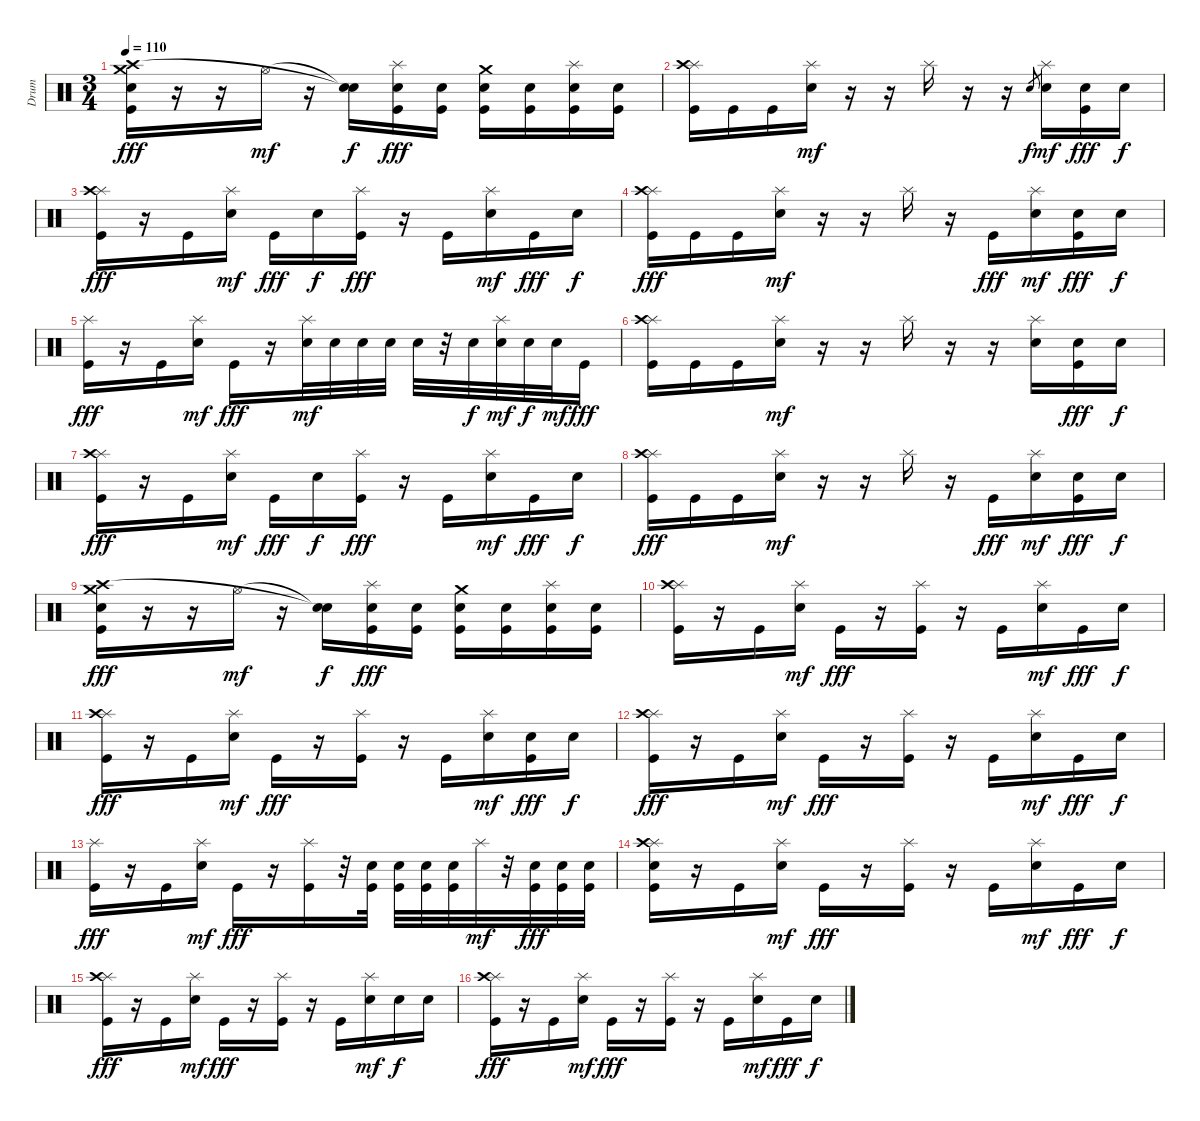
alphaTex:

\track ("Drum" "Drum") {instrument percussion}
\staff {score}
\articulation defaults
\ts (3 4)
\tempo 110
\clef neutral
\ks c
("Crash medium (hit)" "Crash high (hit)" "Electric Snare (hit)" "Kick (hit)").16{dy fff} r.16 r.16 "Hi-Hat (open)".16{dy mf} r.16 ("Snare (hit)"{t} "Snare (hit)"{t}).16{dy f} ("Splash (hit)" "Electric Snare (hit)" "Kick (hit)").16{dy fff} ("Electric Snare (hit)" "Kick (hit)").16 ("Crash medium (hit)" "Electric Snare (hit)" "Kick (hit)").16 ("Electric Snare (hit)" "Kick (hit)").16 ("Splash (hit)" "Electric Snare (hit)" "Kick (hit)").16 ("Electric Snare (hit)" "Kick (hit)").16 |
("Splash (hit)" "Crash high (hit)" "Kick (hit)").16 "Kick (hit)".16 "Kick (hit)".16 ("Splash (hit)" "Electric Snare (hit)").16{dy mf} r.16 r.16 "Splash (hit)".16 r.16 r.16 "Electric Snare (hit)"{sl}.8{gr dy f} ("Splash (hit)" "Electric Snare (hit)").16{dy mf} ("Electric Snare (hit)" "Kick (hit)").16{dy fff} "Electric Snare (hit)".16{dy f} |
("Splash (hit)" "Crash high (hit)" "Kick (hit)").16{dy fff} r.16 "Kick (hit)".16 ("Splash (hit)" "Electric Snare (hit)").16{dy mf} "Kick (hit)".16{dy fff} "Electric Snare (hit)".16{dy f} ("Splash (hit)" "Kick (hit)").16{dy fff} r.16 "Kick (hit)".16 ("Splash (hit)" "Electric Snare (hit)").16{dy mf} "Kick (hit)".16{dy fff} "Electric Snare (hit)".16{dy f} |
("Splash (hit)" "Crash high (hit)" "Kick (hit)").16{dy fff} "Kick (hit)".16 "Kick (hit)".16 ("Splash (hit)" "Electric Snare (hit)").16{dy mf} r.16 r.16 "Splash (hit)".16 r.16 "Kick (hit)".16{dy fff} ("Splash (hit)" "Electric Snare (hit)").16{dy mf} ("Electric Snare (hit)" "Kick (hit)").16{dy fff} "Electric Snare (hit)".16{dy f} |
("Splash (hit)" "Kick (hit)").16{dy fff} r.16 "Kick (hit)".16 ("Splash (hit)" "Electric Snare (hit)").16{dy mf} "Kick (hit)".16{dy fff} r.16 ("Splash (hit)" "Electric Snare (hit)").32{dy mf} "Electric Snare (hit)".32 "Electric Snare (hit)".32 "Electric Snare (hit)".32 "Electric Snare (hit)".32 r.32 "Electric Snare (hit)".32{dy f} ("Splash (hit)" "Electric Snare (hit)").32{dy mf} "Electric Snare (hit)".32{dy f} "Electric Snare (hit)".32{dy mf} "Kick (hit)".16{dy fff} |
("Splash (hit)" "Crash high (hit)" "Kick (hit)").16 "Kick (hit)".16 "Kick (hit)".16 ("Splash (hit)" "Electric Snare (hit)").16{dy mf} r.16 r.16 "Splash (hit)".16 r.16 r.16 ("Splash (hit)" "Electric Snare (hit)").16 ("Electric Snare (hit)" "Kick (hit)").16{dy fff} "Electric Snare (hit)".16{dy f} |
("Splash (hit)" "Crash high (hit)" "Kick (hit)").16{dy fff} r.16 "Kick (hit)".16 ("Splash (hit)" "Electric Snare (hit)").16{dy mf} "Kick (hit)".16{dy fff} "Electric Snare (hit)".16{dy f} ("Splash (hit)" "Kick (hit)").16{dy fff} r.16 "Kick (hit)".16 ("Splash (hit)" "Electric Snare (hit)").16{dy mf} "Kick (hit)".16{dy fff} "Electric Snare (hit)".16{dy f} |
("Splash (hit)" "Crash high (hit)" "Kick (hit)").16{dy fff} "Kick (hit)".16 "Kick (hit)".16 ("Splash (hit)" "Electric Snare (hit)").16{dy mf} r.16 r.16 "Splash (hit)".16 r.16 "Kick (hit)".16{dy fff} ("Splash (hit)" "Electric Snare (hit)").16{dy mf} ("Electric Snare (hit)" "Kick (hit)").16{dy fff} "Electric Snare (hit)".16{dy f} |
("Crash medium (hit)" "Crash high (hit)" "Electric Snare (hit)" "Kick (hit)").16{dy fff} r.16 r.16 "Hi-Hat (open)".16{dy mf} r.16 ("Snare (hit)"{t} "Snare (hit)"{t}).16{dy f} ("Splash (hit)" "Electric Snare (hit)" "Kick (hit)").16{dy fff} ("Electric Snare (hit)" "Kick (hit)").16 ("Crash medium (hit)" "Electric Snare (hit)" "Kick (hit)").16 ("Electric Snare (hit)" "Kick (hit)").16 ("Splash (hit)" "Electric Snare (hit)" "Kick (hit)").16 ("Electric Snare (hit)" "Kick (hit)").16 |
("Splash (hit)" "Crash high (hit)" "Kick (hit)").16 r.16 "Kick (hit)".16 ("Splash (hit)" "Electric Snare (hit)").16{dy mf} "Kick (hit)".16{dy fff} r.16 ("Splash (hit)" "Kick (hit)").16 r.16 "Kick (hit)".16 ("Splash (hit)" "Electric Snare (hit)").16{dy mf} "Kick (hit)".16{dy fff} "Electric Snare (hit)".16{dy f} |
("Splash (hit)" "Crash high (hit)" "Kick (hit)").16{dy fff} r.16 "Kick (hit)".16 ("Splash (hit)" "Electric Snare (hit)").16{dy mf} "Kick (hit)".16{dy fff} r.16 ("Splash (hit)" "Kick (hit)").16 r.16 "Kick (hit)".16 ("Splash (hit)" "Electric Snare (hit)").16{dy mf} ("Electric Snare (hit)" "Kick (hit)").16{dy fff} "Electric Snare (hit)".16{dy f} |
("Splash (hit)" "Crash high (hit)" "Kick (hit)").16{dy fff} r.16 "Kick (hit)".16 ("Splash (hit)" "Electric Snare (hit)").16{dy mf} "Kick (hit)".16{dy fff} r.16 ("Splash (hit)" "Kick (hit)").16 r.16 "Kick (hit)".16 ("Splash (hit)" "Electric Snare (hit)").16{dy mf} "Kick (hit)".16{dy fff} "Electric Snare (hit)".16{dy f} |
("Splash (hit)" "Kick (hit)").16{dy fff} r.16 "Kick (hit)".16 ("Splash (hit)" "Electric Snare (hit)").16{dy mf} "Kick (hit)".16{dy fff} r.16 ("Splash (hit)" "Kick (hit)").16 r.32 ("Electric Snare (hit)" "Kick (hit)").32 ("Electric Snare (hit)" "Kick (hit)").32 ("Electric Snare (hit)" "Kick (hit)").32 ("Electric Snare (hit)" "Kick (hit)").32 "Splash (hit)".32{dy mf} r.32 ("Electric Snare (hit)" "Kick (hit)").32{dy fff} ("Electric Snare (hit)" "Kick (hit)").32 ("Electric Snare (hit)" "Kick (hit)").32 |
("Splash (hit)" "Crash high (hit)" "Electric Snare (hit)" "Kick (hit)").16 r.16 "Kick (hit)".16 ("Splash (hit)" "Electric Snare (hit)").16{dy mf} "Kick (hit)".16{dy fff} r.16 ("Splash (hit)" "Kick (hit)").16 r.16 "Kick (hit)".16 ("Splash (hit)" "Electric Snare (hit)").16{dy mf} "Kick (hit)".16{dy fff} "Electric Snare (hit)".16{dy f} |
("Splash (hit)" "Crash high (hit)" "Kick (hit)").16{dy fff} r.16 "Kick (hit)".16 ("Splash (hit)" "Electric Snare (hit)").16{dy mf} "Kick (hit)".16{dy fff} r.16 ("Splash (hit)" "Kick (hit)").16 r.16 "Kick (hit)".16 ("Splash (hit)" "Electric Snare (hit)").16{dy mf} "Electric Snare (hit)".16{dy f} "Electric Snare (hit)".16 |
("Splash (hit)" "Crash high (hit)" "Kick (hit)").16{dy fff} r.16 "Kick (hit)".16 ("Splash (hit)" "Electric Snare (hit)").16{dy mf} "Kick (hit)".16{dy fff} r.16 ("Splash (hit)" "Kick (hit)").16 r.16 "Kick (hit)".16 ("Splash (hit)" "Electric Snare (hit)").16{dy mf} "Kick (hit)".16{dy fff} "Electric Snare (hit)".16{dy f}
